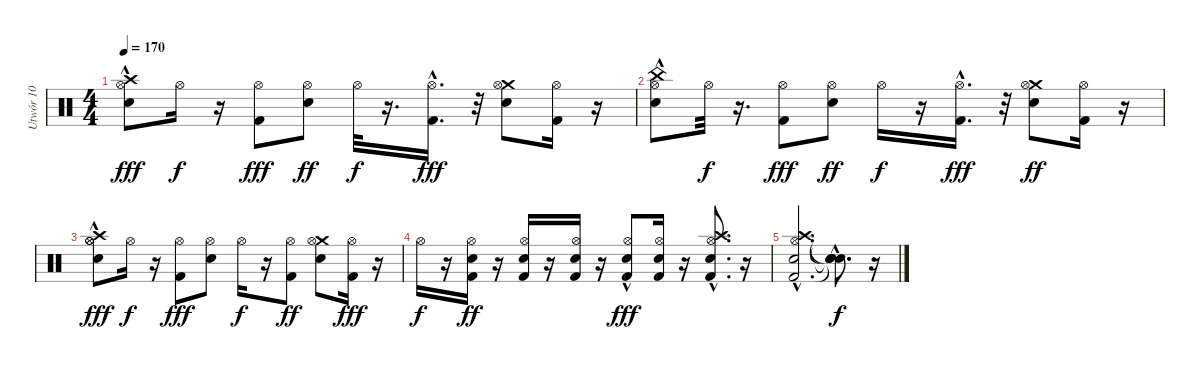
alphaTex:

\track ("Utwór 10" "Utwór 10") {instrument percussion}
\staff {score}
\articulation defaults
\ts (4 4)
\tempo 170
\clef neutral
\ks c
("Snare (hit) 2" "Hi-Hat (open)" "Crash high (hit)"{hac}).8{dy fff} "Hi-Hat (open)".16{dy f} r.16 ("Hi-Hat (open)" "Kick (hit) 2").8{dy fff} ("Snare (hit) 2" "Hi-Hat (open)").8{dy ff} "Hi-Hat (open)".32{dy f} r.16{d} ("Kick (hit) 2"{hac} "Hi-Hat (open)").16{d dy fff} r.32 ("Crash medium (hit)" "Hi-Hat (open)" "Snare (hit) 2").8 ("Kick (hit) 2" "Hi-Hat (open)").16 r.16 |
("Hi-Hat (open)" "Snare (hit) 2" "China (hit)"{hac}).8 "Hi-Hat (open)".32{dy f} r.16{d} ("Hi-Hat (open)" "Kick (hit) 2").8{dy fff} ("Hi-Hat (open)" "Snare (hit) 2").8{dy ff} "Hi-Hat (open)".16{dy f} r.16 ("Kick (hit) 2"{hac} "Hi-Hat (open)").16{d dy fff} r.32 ("Snare (hit) 2" "Crash medium (hit)" "Hi-Hat (open)").8{dy ff} ("Kick (hit) 2" "Hi-Hat (open)").16 r.16 |
("Hi-Hat (open)" "Hi-Hat (open)" "Snare (hit) 2" "Crash high (hit)"{hac}).8{dy fff} "Hi-Hat (open)".16{dy f} r.16 ("Hi-Hat (open)" "Kick (hit) 2").8{dy fff} ("Hi-Hat (open)" "Snare (hit) 2").8 "Hi-Hat (open)".16{dy f} r.16 ("Hi-Hat (open)" "Kick (hit) 2").8{dy ff} ("Crash medium (hit)" "Snare (hit) 2" "Hi-Hat (open)").8 ("Kick (hit) 2" "Hi-Hat (open)").16{dy fff} r.16 |
"Hi-Hat (open)".16{dy f} r.16 ("Kick (hit) 2" "Snare (hit) 2" "Hi-Hat (open)").16{dy ff} r.16 ("Kick (hit) 2" "Snare (hit) 2" "Hi-Hat (open)").16 r.16 ("Kick (hit) 2" "Snare (hit) 2" "Hi-Hat (open)").16 r.16 ("Hi-Hat (open)"{hac} "Snare (hit) 2" "Kick (hit) 2").8{dy fff} ("Hi-Hat (open)" "Snare (hit) 2" "Kick (hit) 2").16 r.16 ("Crash high (hit)"{hac} "Snare (hit) 2" "Kick (hit) 2" "Hi-Hat (open)").8{d} r.16 |
("Snare (hit) 2"{hac} "Hi-Hat (open)"{hac} "Crash high (hit)"{hac} "Kick (hit) 2"{hac}).2{d} ("Snare (hit)"{t} "Snare (hit)"{t} "Snare (hit)"{hac t} "Snare (hit)"{hac t}).8{d dy f} r.16
